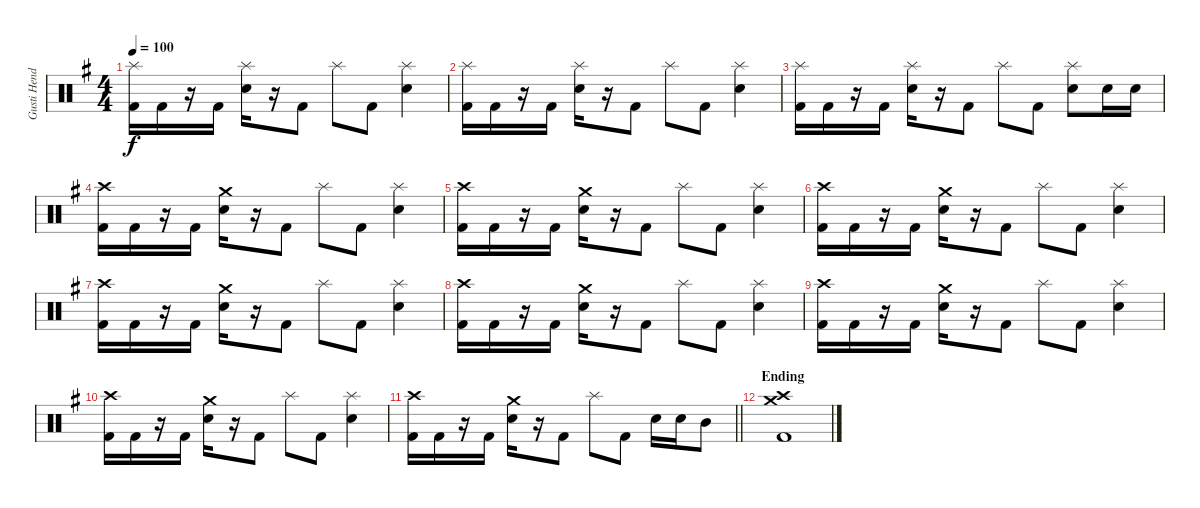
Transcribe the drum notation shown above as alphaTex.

\track ("Gusti Hendy" "Gusti Hend") {instrument percussion}
\staff {score}
\articulation defaults
\ts (4 4)
\tempo 100
\clef neutral
\ks g
("Splash (hit)" "Kick (hit) 2").16{dy f} "Kick (hit) 2".16 r.16 "Kick (hit) 2".16 ("Splash (hit)" "Electric Snare (hit)").16 r.16 "Kick (hit) 2".8 "Splash (hit)".8 "Kick (hit) 2".8 ("Splash (hit)" "Electric Snare (hit)").4 |
("Splash (hit)" "Kick (hit) 2").16 "Kick (hit) 2".16 r.16 "Kick (hit) 2".16 ("Splash (hit)" "Electric Snare (hit)").16 r.16 "Kick (hit) 2".8 "Splash (hit)".8 "Kick (hit) 2".8 ("Splash (hit)" "Electric Snare (hit)").4 |
("Splash (hit)" "Kick (hit) 2").16 "Kick (hit) 2".16 r.16 "Kick (hit) 2".16 ("Splash (hit)" "Electric Snare (hit)").16 r.16 "Kick (hit) 2".8 "Splash (hit)".8 "Kick (hit) 2".8 ("Splash (hit)" "Electric Snare (hit)").8 "Electric Snare (hit)".16 "Electric Snare (hit)".16 |
("Crash high (hit)" "Kick (hit) 2").16 "Kick (hit) 2".16 r.16 "Kick (hit) 2".16 ("Crash medium (hit)" "Electric Snare (hit)").16 r.16 "Kick (hit) 2".8 "Splash (hit)".8 "Kick (hit) 2".8 ("Splash (hit)" "Electric Snare (hit)").4 |
("Crash high (hit)" "Kick (hit) 2").16 "Kick (hit) 2".16 r.16 "Kick (hit) 2".16 ("Crash medium (hit)" "Electric Snare (hit)").16 r.16 "Kick (hit) 2".8 "Splash (hit)".8 "Kick (hit) 2".8 ("Splash (hit)" "Electric Snare (hit)").4 |
("Crash high (hit)" "Kick (hit) 2").16 "Kick (hit) 2".16 r.16 "Kick (hit) 2".16 ("Crash medium (hit)" "Electric Snare (hit)").16 r.16 "Kick (hit) 2".8 "Splash (hit)".8 "Kick (hit) 2".8 ("Splash (hit)" "Electric Snare (hit)").4 |
("Crash high (hit)" "Kick (hit) 2").16 "Kick (hit) 2".16 r.16 "Kick (hit) 2".16 ("Crash medium (hit)" "Electric Snare (hit)").16 r.16 "Kick (hit) 2".8 "Splash (hit)".8 "Kick (hit) 2".8 ("Splash (hit)" "Electric Snare (hit)").4 |
("Crash high (hit)" "Kick (hit) 2").16 "Kick (hit) 2".16 r.16 "Kick (hit) 2".16 ("Crash medium (hit)" "Electric Snare (hit)").16 r.16 "Kick (hit) 2".8 "Splash (hit)".8 "Kick (hit) 2".8 ("Splash (hit)" "Electric Snare (hit)").4 |
("Crash high (hit)" "Kick (hit) 2").16 "Kick (hit) 2".16 r.16 "Kick (hit) 2".16 ("Crash medium (hit)" "Electric Snare (hit)").16 r.16 "Kick (hit) 2".8 "Splash (hit)".8 "Kick (hit) 2".8 ("Splash (hit)" "Electric Snare (hit)").4 |
("Crash high (hit)" "Kick (hit) 2").16 "Kick (hit) 2".16 r.16 "Kick (hit) 2".16 ("Crash medium (hit)" "Electric Snare (hit)").16 r.16 "Kick (hit) 2".8 "Splash (hit)".8 "Kick (hit) 2".8 ("Splash (hit)" "Electric Snare (hit)").4 |
\barLineRight lightlight
("Crash high (hit)" "Kick (hit) 2").16 "Kick (hit) 2".16 r.16 "Kick (hit) 2".16 ("Crash medium (hit)" "Electric Snare (hit)").16 r.16 "Kick (hit) 2".8 "Splash (hit)".8 "Kick (hit) 2".8 "Electric Snare (hit)".16 "Electric Snare (hit)".16 "Mid Tom (hit)".8 |
\section ("" "Ending")
("Crash high (hit)" "Crash medium (hit)" "Kick (hit) 2").1
